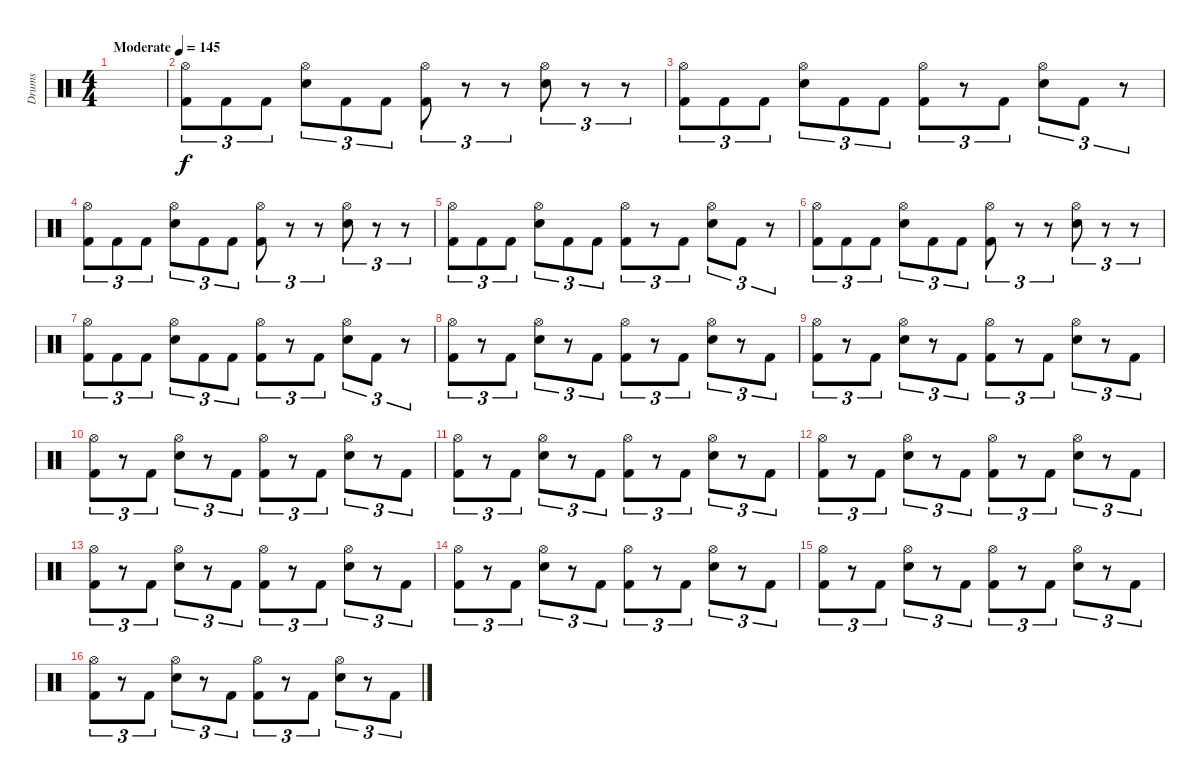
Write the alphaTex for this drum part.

\track ("Drums" "Drums") {instrument percussion}
\staff {score}
\articulation defaults
\ts (4 4)
\tempo (145 "Moderate")
\clef neutral
\ks c
|
("Hi-Hat (open)" "Kick (hit) 2").8{tu (3 2)} "Kick (hit) 2".8{tu (3 2)} "Kick (hit) 2".8{tu (3 2)} ("Hi-Hat (open)" "Electric Snare (hit)").8{tu (3 2)} "Kick (hit) 2".8{tu (3 2)} "Kick (hit) 2".8{tu (3 2)} ("Hi-Hat (open)" "Kick (hit) 2").8{tu (3 2)} r.8{tu (3 2)} r.8{tu (3 2)} ("Hi-Hat (open)" "Electric Snare (hit)").8{tu (3 2)} r.8{tu (3 2)} r.8{tu (3 2)} |
("Hi-Hat (open)" "Kick (hit) 2").8{tu (3 2)} "Kick (hit) 2".8{tu (3 2)} "Kick (hit) 2".8{tu (3 2)} ("Hi-Hat (open)" "Electric Snare (hit)").8{tu (3 2)} "Kick (hit) 2".8{tu (3 2)} "Kick (hit) 2".8{tu (3 2)} ("Hi-Hat (open)" "Kick (hit) 2").8{tu (3 2)} r.8{tu (3 2)} "Kick (hit) 2".8{tu (3 2)} ("Hi-Hat (open)" "Electric Snare (hit)").8{tu (3 2)} "Kick (hit) 2".8{tu (3 2)} r.8{tu (3 2)} |
("Hi-Hat (open)" "Kick (hit) 2").8{tu (3 2)} "Kick (hit) 2".8{tu (3 2)} "Kick (hit) 2".8{tu (3 2)} ("Hi-Hat (open)" "Electric Snare (hit)").8{tu (3 2)} "Kick (hit) 2".8{tu (3 2)} "Kick (hit) 2".8{tu (3 2)} ("Hi-Hat (open)" "Kick (hit) 2").8{tu (3 2)} r.8{tu (3 2)} r.8{tu (3 2)} ("Hi-Hat (open)" "Electric Snare (hit)").8{tu (3 2)} r.8{tu (3 2)} r.8{tu (3 2)} |
("Hi-Hat (open)" "Kick (hit) 2").8{tu (3 2)} "Kick (hit) 2".8{tu (3 2)} "Kick (hit) 2".8{tu (3 2)} ("Hi-Hat (open)" "Electric Snare (hit)").8{tu (3 2)} "Kick (hit) 2".8{tu (3 2)} "Kick (hit) 2".8{tu (3 2)} ("Hi-Hat (open)" "Kick (hit) 2").8{tu (3 2)} r.8{tu (3 2)} "Kick (hit) 2".8{tu (3 2)} ("Hi-Hat (open)" "Electric Snare (hit)").8{tu (3 2)} "Kick (hit) 2".8{tu (3 2)} r.8{tu (3 2)} |
("Hi-Hat (open)" "Kick (hit) 2").8{tu (3 2)} "Kick (hit) 2".8{tu (3 2)} "Kick (hit) 2".8{tu (3 2)} ("Hi-Hat (open)" "Electric Snare (hit)").8{tu (3 2)} "Kick (hit) 2".8{tu (3 2)} "Kick (hit) 2".8{tu (3 2)} ("Hi-Hat (open)" "Kick (hit) 2").8{tu (3 2)} r.8{tu (3 2)} r.8{tu (3 2)} ("Hi-Hat (open)" "Electric Snare (hit)").8{tu (3 2)} r.8{tu (3 2)} r.8{tu (3 2)} |
("Hi-Hat (open)" "Kick (hit) 2").8{tu (3 2)} "Kick (hit) 2".8{tu (3 2)} "Kick (hit) 2".8{tu (3 2)} ("Hi-Hat (open)" "Electric Snare (hit)").8{tu (3 2)} "Kick (hit) 2".8{tu (3 2)} "Kick (hit) 2".8{tu (3 2)} ("Hi-Hat (open)" "Kick (hit) 2").8{tu (3 2)} r.8{tu (3 2)} "Kick (hit) 2".8{tu (3 2)} ("Hi-Hat (open)" "Electric Snare (hit)").8{tu (3 2)} "Kick (hit) 2".8{tu (3 2)} r.8{tu (3 2)} |
("Hi-Hat (open)" "Kick (hit) 2").8{tu (3 2)} r.8{tu (3 2)} "Kick (hit) 2".8{tu (3 2)} ("Hi-Hat (open)" "Electric Snare (hit)").8{tu (3 2)} r.8{tu (3 2)} "Kick (hit) 2".8{tu (3 2)} ("Hi-Hat (open)" "Kick (hit) 2").8{tu (3 2)} r.8{tu (3 2)} "Kick (hit) 2".8{tu (3 2)} ("Hi-Hat (open)" "Electric Snare (hit)").8{tu (3 2)} r.8{tu (3 2)} "Kick (hit) 2".8{tu (3 2)} |
("Hi-Hat (open)" "Kick (hit) 2").8{tu (3 2)} r.8{tu (3 2)} "Kick (hit) 2".8{tu (3 2)} ("Hi-Hat (open)" "Electric Snare (hit)").8{tu (3 2)} r.8{tu (3 2)} "Kick (hit) 2".8{tu (3 2)} ("Hi-Hat (open)" "Kick (hit) 2").8{tu (3 2)} r.8{tu (3 2)} "Kick (hit) 2".8{tu (3 2)} ("Hi-Hat (open)" "Electric Snare (hit)").8{tu (3 2)} r.8{tu (3 2)} "Kick (hit) 2".8{tu (3 2)} |
("Hi-Hat (open)" "Kick (hit) 2").8{tu (3 2)} r.8{tu (3 2)} "Kick (hit) 2".8{tu (3 2)} ("Hi-Hat (open)" "Electric Snare (hit)").8{tu (3 2)} r.8{tu (3 2)} "Kick (hit) 2".8{tu (3 2)} ("Hi-Hat (open)" "Kick (hit) 2").8{tu (3 2)} r.8{tu (3 2)} "Kick (hit) 2".8{tu (3 2)} ("Hi-Hat (open)" "Electric Snare (hit)").8{tu (3 2)} r.8{tu (3 2)} "Kick (hit) 2".8{tu (3 2)} |
("Hi-Hat (open)" "Kick (hit) 2").8{tu (3 2)} r.8{tu (3 2)} "Kick (hit) 2".8{tu (3 2)} ("Hi-Hat (open)" "Electric Snare (hit)").8{tu (3 2)} r.8{tu (3 2)} "Kick (hit) 2".8{tu (3 2)} ("Hi-Hat (open)" "Kick (hit) 2").8{tu (3 2)} r.8{tu (3 2)} "Kick (hit) 2".8{tu (3 2)} ("Hi-Hat (open)" "Electric Snare (hit)").8{tu (3 2)} r.8{tu (3 2)} "Kick (hit) 2".8{tu (3 2)} |
("Hi-Hat (open)" "Kick (hit) 2").8{tu (3 2)} r.8{tu (3 2)} "Kick (hit) 2".8{tu (3 2)} ("Hi-Hat (open)" "Electric Snare (hit)").8{tu (3 2)} r.8{tu (3 2)} "Kick (hit) 2".8{tu (3 2)} ("Hi-Hat (open)" "Kick (hit) 2").8{tu (3 2)} r.8{tu (3 2)} "Kick (hit) 2".8{tu (3 2)} ("Hi-Hat (open)" "Electric Snare (hit)").8{tu (3 2)} r.8{tu (3 2)} "Kick (hit) 2".8{tu (3 2)} |
("Hi-Hat (open)" "Kick (hit) 2").8{tu (3 2)} r.8{tu (3 2)} "Kick (hit) 2".8{tu (3 2)} ("Hi-Hat (open)" "Electric Snare (hit)").8{tu (3 2)} r.8{tu (3 2)} "Kick (hit) 2".8{tu (3 2)} ("Hi-Hat (open)" "Kick (hit) 2").8{tu (3 2)} r.8{tu (3 2)} "Kick (hit) 2".8{tu (3 2)} ("Hi-Hat (open)" "Electric Snare (hit)").8{tu (3 2)} r.8{tu (3 2)} "Kick (hit) 2".8{tu (3 2)} |
("Hi-Hat (open)" "Kick (hit) 2").8{tu (3 2)} r.8{tu (3 2)} "Kick (hit) 2".8{tu (3 2)} ("Hi-Hat (open)" "Electric Snare (hit)").8{tu (3 2)} r.8{tu (3 2)} "Kick (hit) 2".8{tu (3 2)} ("Hi-Hat (open)" "Kick (hit) 2").8{tu (3 2)} r.8{tu (3 2)} "Kick (hit) 2".8{tu (3 2)} ("Hi-Hat (open)" "Electric Snare (hit)").8{tu (3 2)} r.8{tu (3 2)} "Kick (hit) 2".8{tu (3 2)} |
("Hi-Hat (open)" "Kick (hit) 2").8{tu (3 2)} r.8{tu (3 2)} "Kick (hit) 2".8{tu (3 2)} ("Hi-Hat (open)" "Electric Snare (hit)").8{tu (3 2)} r.8{tu (3 2)} "Kick (hit) 2".8{tu (3 2)} ("Hi-Hat (open)" "Kick (hit) 2").8{tu (3 2)} r.8{tu (3 2)} "Kick (hit) 2".8{tu (3 2)} ("Hi-Hat (open)" "Electric Snare (hit)").8{tu (3 2)} r.8{tu (3 2)} "Kick (hit) 2".8{tu (3 2)} |
("Hi-Hat (open)" "Kick (hit) 2").8{tu (3 2)} r.8{tu (3 2)} "Kick (hit) 2".8{tu (3 2)} ("Hi-Hat (open)" "Electric Snare (hit)").8{tu (3 2)} r.8{tu (3 2)} "Kick (hit) 2".8{tu (3 2)} ("Hi-Hat (open)" "Kick (hit) 2").8{tu (3 2)} r.8{tu (3 2)} "Kick (hit) 2".8{tu (3 2)} ("Hi-Hat (open)" "Electric Snare (hit)").8{tu (3 2)} r.8{tu (3 2)} "Kick (hit) 2".8{tu (3 2)}
